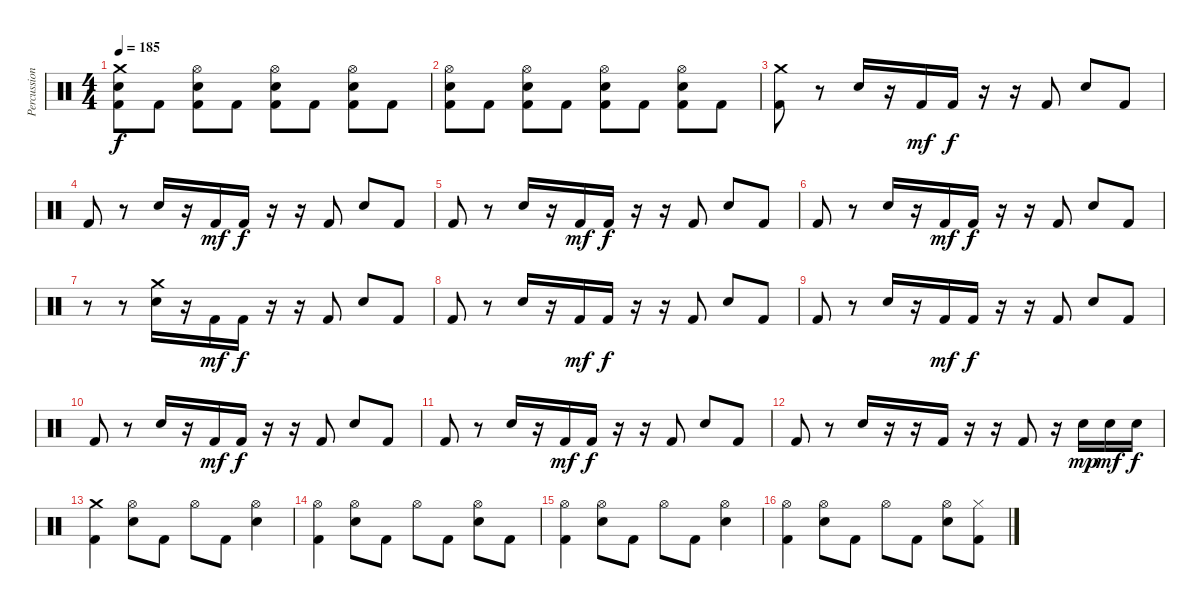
\track ("Percussions" "Percussion") {instrument percussion}
\staff {score}
\articulation defaults
\ts (4 4)
\tempo 185
\clef neutral
\ks c
("Crash medium (hit)" "Electric Snare (hit)" "Kick (hit) 2").8{dy f} "Kick (hit) 2".8 ("Hi-Hat (open)" "Electric Snare (hit)" "Kick (hit) 2").8 "Kick (hit) 2".8 ("Hi-Hat (open)" "Electric Snare (hit)" "Kick (hit) 2").8 "Kick (hit) 2".8 ("Hi-Hat (open)" "Electric Snare (hit)" "Kick (hit) 2").8 "Kick (hit) 2".8 |
("Hi-Hat (open)" "Electric Snare (hit)" "Kick (hit) 2").8 "Kick (hit) 2".8 ("Hi-Hat (open)" "Electric Snare (hit)" "Kick (hit) 2").8 "Kick (hit) 2".8 ("Hi-Hat (open)" "Electric Snare (hit)" "Kick (hit) 2").8 "Kick (hit) 2".8 ("Hi-Hat (open)" "Electric Snare (hit)" "Kick (hit) 2").8 "Kick (hit) 2".8 |
("Crash medium (hit)" "Kick (hit) 2").8 r.8 "Electric Snare (hit)".16 r.16 "Kick (hit) 2".16{dy mf} "Kick (hit) 2".16{dy f} r.16 r.16 "Kick (hit) 2".8 "Electric Snare (hit)".8 "Kick (hit) 2".8 |
"Kick (hit) 2".8 r.8 "Electric Snare (hit)".16 r.16 "Kick (hit) 2".16{dy mf} "Kick (hit) 2".16{dy f} r.16 r.16 "Kick (hit) 2".8 "Electric Snare (hit)".8 "Kick (hit) 2".8 |
"Kick (hit) 2".8 r.8 "Electric Snare (hit)".16 r.16 "Kick (hit) 2".16{dy mf} "Kick (hit) 2".16{dy f} r.16 r.16 "Kick (hit) 2".8 "Electric Snare (hit)".8 "Kick (hit) 2".8 |
"Kick (hit) 2".8 r.8 "Electric Snare (hit)".16 r.16 "Kick (hit) 2".16{dy mf} "Kick (hit) 2".16{dy f} r.16 r.16 "Kick (hit) 2".8 "Electric Snare (hit)".8 "Kick (hit) 2".8 |
r.8 r.8 ("Crash medium (hit)" "Electric Snare (hit)").16 r.16 "Kick (hit) 2".16{dy mf} "Kick (hit) 2".16{dy f} r.16 r.16 "Kick (hit) 2".8 "Electric Snare (hit)".8 "Kick (hit) 2".8 |
"Kick (hit) 2".8 r.8 "Electric Snare (hit)".16 r.16 "Kick (hit) 2".16{dy mf} "Kick (hit) 2".16{dy f} r.16 r.16 "Kick (hit) 2".8 "Electric Snare (hit)".8 "Kick (hit) 2".8 |
"Kick (hit) 2".8 r.8 "Electric Snare (hit)".16 r.16 "Kick (hit) 2".16{dy mf} "Kick (hit) 2".16{dy f} r.16 r.16 "Kick (hit) 2".8 "Electric Snare (hit)".8 "Kick (hit) 2".8 |
"Kick (hit) 2".8 r.8 "Electric Snare (hit)".16 r.16 "Kick (hit) 2".16{dy mf} "Kick (hit) 2".16{dy f} r.16 r.16 "Kick (hit) 2".8 "Electric Snare (hit)".8 "Kick (hit) 2".8 |
"Kick (hit) 2".8 r.8 "Electric Snare (hit)".16 r.16 "Kick (hit) 2".16{dy mf} "Kick (hit) 2".16{dy f} r.16 r.16 "Kick (hit) 2".8 "Electric Snare (hit)".8 "Kick (hit) 2".8 |
"Kick (hit) 2".8 r.8 "Electric Snare (hit)".16 r.16 r.16 "Kick (hit) 2".16 r.16 r.16 "Kick (hit) 2".8 r.16 "Electric Snare (hit)".16{dy mp} "Electric Snare (hit)".16{dy mf} "Electric Snare (hit)".16{dy f} |
("Crash medium (hit)" "Kick (hit) 2").4 ("Hi-Hat (open)" "Electric Snare (hit)").8 "Kick (hit) 2".8 "Hi-Hat (open)".8 "Kick (hit) 2".8 ("Hi-Hat (open)" "Electric Snare (hit)").4 |
("Hi-Hat (open)" "Kick (hit) 2").4 ("Hi-Hat (open)" "Electric Snare (hit)").8 "Kick (hit) 2".8 "Hi-Hat (open)".8 "Kick (hit) 2".8 ("Hi-Hat (open)" "Electric Snare (hit)").8 "Kick (hit) 2".8 |
("Hi-Hat (open)" "Kick (hit) 2").4 ("Hi-Hat (open)" "Electric Snare (hit)").8 "Kick (hit) 2".8 "Hi-Hat (open)".8 "Kick (hit) 2".8 ("Hi-Hat (open)" "Electric Snare (hit)").4 |
("Hi-Hat (open)" "Kick (hit) 2").4 ("Hi-Hat (open)" "Electric Snare (hit)").8 "Kick (hit) 2".8 "Hi-Hat (open)".8 "Kick (hit) 2".8 ("Hi-Hat (open)" "Electric Snare (hit)").8 ("Hi-Hat (closed)" "Kick (hit) 2").8
